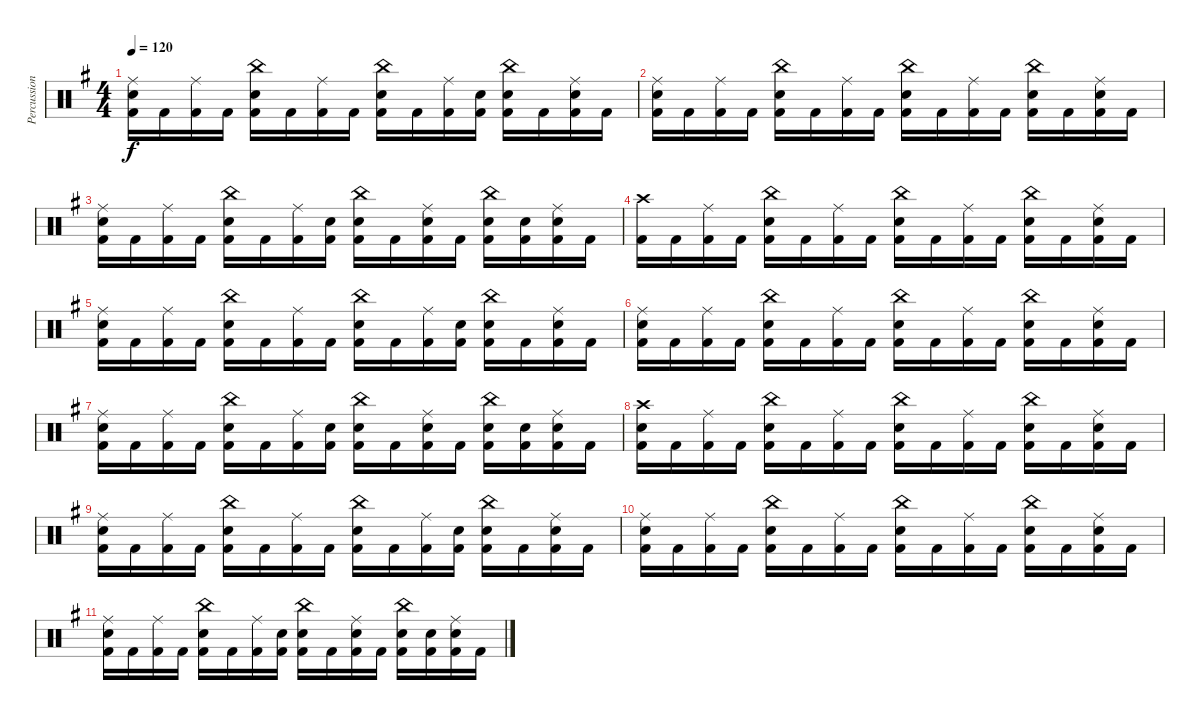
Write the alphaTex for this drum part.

\track ("Percussions" "Percussion") {instrument percussion}
\staff {score}
\articulation defaults
\ts (4 4)
\tempo 120
\clef neutral
\ks g
("Ride (middle)" "Snare (hit) 2" "Kick (hit) 2").16{dy f} "Kick (hit) 2".16 ("Ride (middle)" "Kick (hit) 2").16 "Kick (hit) 2".16 ("China (hit)" "Snare (hit) 2" "Kick (hit) 2").16 "Kick (hit) 2".16 ("Ride (middle)" "Kick (hit) 2").16 "Kick (hit) 2".16 ("China (hit)" "Snare (hit) 2" "Kick (hit) 2").16 "Kick (hit) 2".16 ("Ride (middle)" "Kick (hit) 2").16 ("Snare (hit) 2" "Kick (hit) 2").16 ("China (hit)" "Snare (hit) 2" "Kick (hit) 2").16 "Kick (hit) 2".16 ("Ride (middle)" "Snare (hit) 2" "Kick (hit) 2").16 "Kick (hit) 2".16 |
("Ride (middle)" "Snare (hit) 2" "Kick (hit) 2").16 "Kick (hit) 2".16 ("Ride (middle)" "Kick (hit) 2").16 "Kick (hit) 2".16 ("China (hit)" "Snare (hit) 2" "Kick (hit) 2").16 "Kick (hit) 2".16 ("Ride (middle)" "Kick (hit) 2").16 "Kick (hit) 2".16 ("China (hit)" "Snare (hit) 2" "Kick (hit) 2").16 "Kick (hit) 2".16 ("Ride (middle)" "Kick (hit) 2").16 "Kick (hit) 2".16 ("China (hit)" "Snare (hit) 2" "Kick (hit) 2").16 "Kick (hit) 2".16 ("Ride (middle)" "Snare (hit) 2" "Kick (hit) 2").16 "Kick (hit) 2".16 |
("Ride (middle)" "Snare (hit) 2" "Kick (hit) 2").16 "Kick (hit) 2".16 ("Ride (middle)" "Kick (hit) 2").16 "Kick (hit) 2".16 ("China (hit)" "Snare (hit) 2" "Kick (hit) 2").16 "Kick (hit) 2".16 ("Ride (middle)" "Kick (hit) 2").16 ("Snare (hit) 2" "Kick (hit) 2").16 ("China (hit)" "Snare (hit) 2" "Kick (hit) 2").16 "Kick (hit) 2".16 ("Ride (middle)" "Snare (hit) 2" "Kick (hit) 2").16 "Kick (hit) 2".16 ("China (hit)" "Snare (hit) 2" "Kick (hit) 2").16 ("Snare (hit) 2" "Kick (hit) 2").16 ("Ride (middle)" "Snare (hit) 2" "Kick (hit) 2").16 "Kick (hit) 2".16 |
("Crash high (hit)" "Kick (hit) 2").16 "Kick (hit) 2".16 ("Ride (middle)" "Kick (hit) 2").16 "Kick (hit) 2".16 ("China (hit)" "Snare (hit) 2" "Kick (hit) 2").16 "Kick (hit) 2".16 ("Ride (middle)" "Kick (hit) 2").16 "Kick (hit) 2".16 ("China (hit)" "Snare (hit) 2" "Kick (hit) 2").16 "Kick (hit) 2".16 ("Ride (middle)" "Kick (hit) 2").16 "Kick (hit) 2".16 ("China (hit)" "Snare (hit) 2" "Kick (hit) 2").16 "Kick (hit) 2".16 ("Ride (middle)" "Snare (hit) 2" "Kick (hit) 2").16 "Kick (hit) 2".16 |
("Ride (middle)" "Snare (hit) 2" "Kick (hit) 2").16 "Kick (hit) 2".16 ("Ride (middle)" "Kick (hit) 2").16 "Kick (hit) 2".16 ("China (hit)" "Snare (hit) 2" "Kick (hit) 2").16 "Kick (hit) 2".16 ("Ride (middle)" "Kick (hit) 2").16 "Kick (hit) 2".16 ("China (hit)" "Snare (hit) 2" "Kick (hit) 2").16 "Kick (hit) 2".16 ("Ride (middle)" "Kick (hit) 2").16 ("Snare (hit) 2" "Kick (hit) 2").16 ("China (hit)" "Snare (hit) 2" "Kick (hit) 2").16 "Kick (hit) 2".16 ("Ride (middle)" "Snare (hit) 2" "Kick (hit) 2").16 "Kick (hit) 2".16 |
("Ride (middle)" "Snare (hit) 2" "Kick (hit) 2").16 "Kick (hit) 2".16 ("Ride (middle)" "Kick (hit) 2").16 "Kick (hit) 2".16 ("China (hit)" "Snare (hit) 2" "Kick (hit) 2").16 "Kick (hit) 2".16 ("Ride (middle)" "Kick (hit) 2").16 "Kick (hit) 2".16 ("China (hit)" "Snare (hit) 2" "Kick (hit) 2").16 "Kick (hit) 2".16 ("Ride (middle)" "Kick (hit) 2").16 "Kick (hit) 2".16 ("China (hit)" "Snare (hit) 2" "Kick (hit) 2").16 "Kick (hit) 2".16 ("Ride (middle)" "Snare (hit) 2" "Kick (hit) 2").16 "Kick (hit) 2".16 |
("Ride (middle)" "Snare (hit) 2" "Kick (hit) 2").16 "Kick (hit) 2".16 ("Ride (middle)" "Kick (hit) 2").16 "Kick (hit) 2".16 ("China (hit)" "Snare (hit) 2" "Kick (hit) 2").16 "Kick (hit) 2".16 ("Ride (middle)" "Kick (hit) 2").16 ("Snare (hit) 2" "Kick (hit) 2").16 ("China (hit)" "Snare (hit) 2" "Kick (hit) 2").16 "Kick (hit) 2".16 ("Ride (middle)" "Snare (hit) 2" "Kick (hit) 2").16 "Kick (hit) 2".16 ("China (hit)" "Snare (hit) 2" "Kick (hit) 2").16 ("Snare (hit) 2" "Kick (hit) 2").16 ("Ride (middle)" "Snare (hit) 2" "Kick (hit) 2").16 "Kick (hit) 2".16 |
("Crash high (hit)" "Snare (hit) 2" "Kick (hit) 2").16 "Kick (hit) 2".16 ("Ride (middle)" "Kick (hit) 2").16 "Kick (hit) 2".16 ("China (hit)" "Snare (hit) 2" "Kick (hit) 2").16 "Kick (hit) 2".16 ("Ride (middle)" "Kick (hit) 2").16 "Kick (hit) 2".16 ("China (hit)" "Snare (hit) 2" "Kick (hit) 2").16 "Kick (hit) 2".16 ("Ride (middle)" "Kick (hit) 2").16 "Kick (hit) 2".16 ("China (hit)" "Snare (hit) 2" "Kick (hit) 2").16 "Kick (hit) 2".16 ("Ride (middle)" "Snare (hit) 2" "Kick (hit) 2").16 "Kick (hit) 2".16 |
("Ride (middle)" "Snare (hit) 2" "Kick (hit) 2").16 "Kick (hit) 2".16 ("Ride (middle)" "Kick (hit) 2").16 "Kick (hit) 2".16 ("China (hit)" "Snare (hit) 2" "Kick (hit) 2").16 "Kick (hit) 2".16 ("Ride (middle)" "Kick (hit) 2").16 "Kick (hit) 2".16 ("China (hit)" "Snare (hit) 2" "Kick (hit) 2").16 "Kick (hit) 2".16 ("Ride (middle)" "Kick (hit) 2").16 ("Snare (hit) 2" "Kick (hit) 2").16 ("China (hit)" "Snare (hit) 2" "Kick (hit) 2").16 "Kick (hit) 2".16 ("Ride (middle)" "Snare (hit) 2" "Kick (hit) 2").16 "Kick (hit) 2".16 |
("Ride (middle)" "Snare (hit) 2" "Kick (hit) 2").16 "Kick (hit) 2".16 ("Ride (middle)" "Kick (hit) 2").16 "Kick (hit) 2".16 ("China (hit)" "Snare (hit) 2" "Kick (hit) 2").16 "Kick (hit) 2".16 ("Ride (middle)" "Kick (hit) 2").16 "Kick (hit) 2".16 ("China (hit)" "Snare (hit) 2" "Kick (hit) 2").16 "Kick (hit) 2".16 ("Ride (middle)" "Kick (hit) 2").16 "Kick (hit) 2".16 ("China (hit)" "Snare (hit) 2" "Kick (hit) 2").16 "Kick (hit) 2".16 ("Ride (middle)" "Snare (hit) 2" "Kick (hit) 2").16 "Kick (hit) 2".16 |
("Ride (middle)" "Snare (hit) 2" "Kick (hit) 2").16 "Kick (hit) 2".16 ("Ride (middle)" "Kick (hit) 2").16 "Kick (hit) 2".16 ("China (hit)" "Snare (hit) 2" "Kick (hit) 2").16 "Kick (hit) 2".16 ("Ride (middle)" "Kick (hit) 2").16 ("Snare (hit) 2" "Kick (hit) 2").16 ("China (hit)" "Snare (hit) 2" "Kick (hit) 2").16 "Kick (hit) 2".16 ("Ride (middle)" "Snare (hit) 2" "Kick (hit) 2").16 "Kick (hit) 2".16 ("China (hit)" "Snare (hit) 2" "Kick (hit) 2").16 ("Snare (hit) 2" "Kick (hit) 2").16 ("Ride (middle)" "Snare (hit) 2" "Kick (hit) 2").16 "Kick (hit) 2".16
